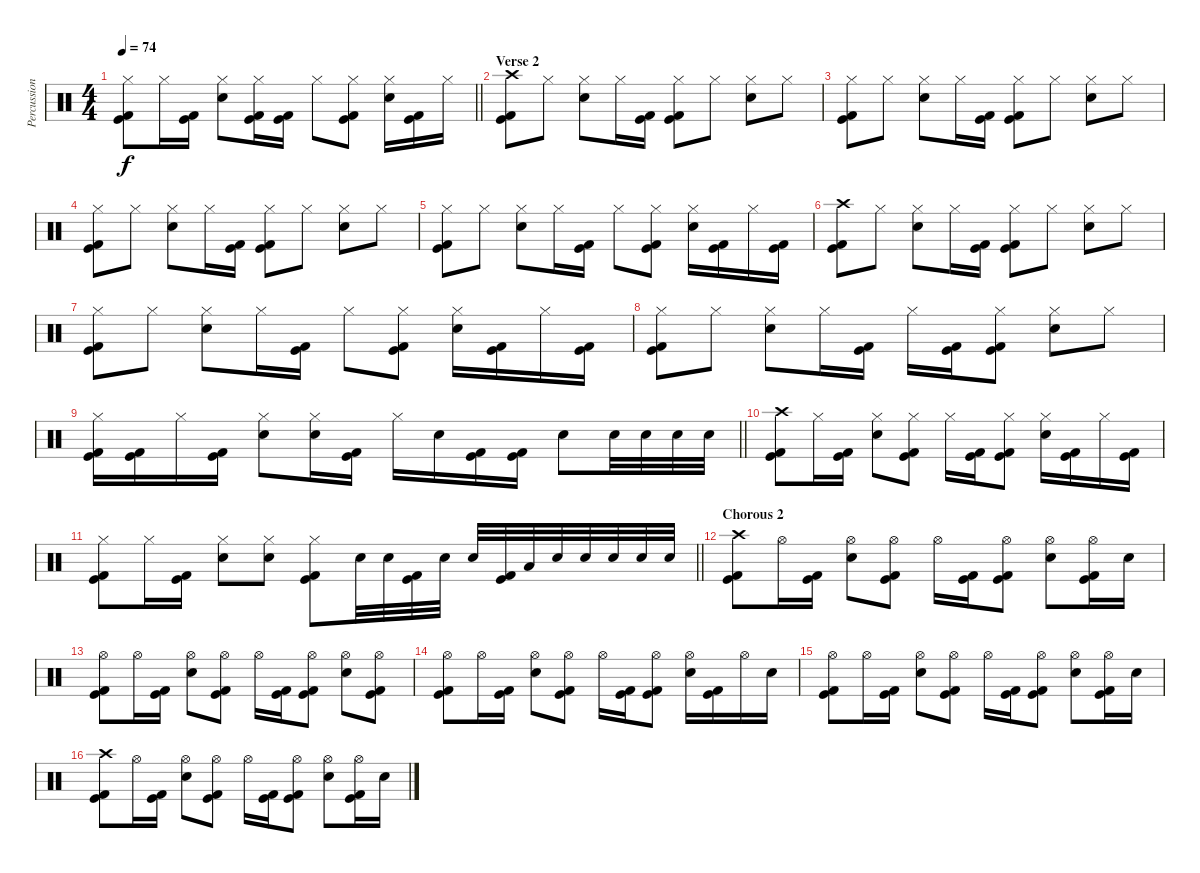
\track ("Percussion" "Percussion") {instrument percussion}
\staff {score}
\articulation defaults
\ts (4 4)
\tempo 74
\clef neutral
\barLineRight lightlight
\ks c
("Hi-Hat (closed)" "Kick (hit)" "Kick (hit) 2").8{dy f} "Hi-Hat (closed)".16 ("Kick (hit)" "Kick (hit) 2").16 ("Hi-Hat (closed)" "Electric Snare (hit)").8 ("Hi-Hat (closed)" "Kick (hit)" "Kick (hit) 2").16 ("Kick (hit)" "Kick (hit) 2").16 "Hi-Hat (closed)".8 ("Hi-Hat (closed)" "Kick (hit)" "Kick (hit) 2").8 ("Hi-Hat (closed)" "Electric Snare (hit)").16 ("Kick (hit)" "Kick (hit) 2").16 "Hi-Hat (closed)".16 |
\section ("" "Verse 2")
("Crash high (hit)" "Kick (hit)" "Kick (hit) 2").8 "Hi-Hat (closed)".8 ("Hi-Hat (closed)" "Electric Snare (hit)").8 "Hi-Hat (closed)".16 ("Kick (hit)" "Kick (hit) 2").16 ("Hi-Hat (closed)" "Kick (hit)" "Kick (hit) 2").8 "Hi-Hat (closed)".8 ("Hi-Hat (closed)" "Electric Snare (hit)").8 "Hi-Hat (closed)".8 |
("Hi-Hat (closed)" "Kick (hit)" "Kick (hit) 2").8 "Hi-Hat (closed)".8 ("Hi-Hat (closed)" "Electric Snare (hit)").8 "Hi-Hat (closed)".16 ("Kick (hit)" "Kick (hit) 2").16 ("Hi-Hat (closed)" "Kick (hit)" "Kick (hit) 2").8 "Hi-Hat (closed)".8 ("Hi-Hat (closed)" "Electric Snare (hit)").8 "Hi-Hat (closed)".8 |
("Hi-Hat (closed)" "Kick (hit)" "Kick (hit) 2").8 "Hi-Hat (closed)".8 ("Hi-Hat (closed)" "Electric Snare (hit)").8 "Hi-Hat (closed)".16 ("Kick (hit)" "Kick (hit) 2").16 ("Hi-Hat (closed)" "Kick (hit)" "Kick (hit) 2").8 "Hi-Hat (closed)".8 ("Hi-Hat (closed)" "Electric Snare (hit)").8 "Hi-Hat (closed)".8 |
("Hi-Hat (closed)" "Kick (hit)" "Kick (hit) 2").8 "Hi-Hat (closed)".8 ("Hi-Hat (closed)" "Electric Snare (hit)").8 "Hi-Hat (closed)".16 ("Kick (hit)" "Kick (hit) 2").16 "Hi-Hat (closed)".8 ("Hi-Hat (closed)" "Kick (hit)" "Kick (hit) 2").8 ("Hi-Hat (closed)" "Electric Snare (hit)").16 ("Kick (hit)" "Kick (hit) 2").16 "Hi-Hat (closed)".16 ("Kick (hit)" "Kick (hit) 2").16 |
("Crash high (hit)" "Kick (hit)" "Kick (hit) 2").8 "Hi-Hat (closed)".8 ("Hi-Hat (closed)" "Electric Snare (hit)").8 "Hi-Hat (closed)".16 ("Kick (hit)" "Kick (hit) 2").16 ("Hi-Hat (closed)" "Kick (hit)" "Kick (hit) 2").8 "Hi-Hat (closed)".8 ("Hi-Hat (closed)" "Electric Snare (hit)").8 "Hi-Hat (closed)".8 |
("Hi-Hat (closed)" "Kick (hit)" "Kick (hit) 2").8 "Hi-Hat (closed)".8 ("Hi-Hat (closed)" "Electric Snare (hit)").8 "Hi-Hat (closed)".16 ("Kick (hit)" "Kick (hit) 2").16 "Hi-Hat (closed)".8 ("Hi-Hat (closed)" "Kick (hit)" "Kick (hit) 2").8 ("Hi-Hat (closed)" "Electric Snare (hit)").16 ("Kick (hit)" "Kick (hit) 2").16 "Hi-Hat (closed)".16 ("Kick (hit)" "Kick (hit) 2").16 |
("Hi-Hat (closed)" "Kick (hit)" "Kick (hit) 2").8 "Hi-Hat (closed)".8 ("Hi-Hat (closed)" "Electric Snare (hit)").8 "Hi-Hat (closed)".16 ("Kick (hit)" "Kick (hit) 2").16 "Hi-Hat (closed)".16 ("Kick (hit)" "Kick (hit) 2").16 ("Hi-Hat (closed)" "Kick (hit)" "Kick (hit) 2").8 ("Hi-Hat (closed)" "Electric Snare (hit)").8 "Hi-Hat (closed)".8 |
\barLineRight lightlight
("Hi-Hat (closed)" "Kick (hit)" "Kick (hit) 2").16 ("Kick (hit)" "Kick (hit) 2").16 "Hi-Hat (closed)".16 ("Kick (hit)" "Kick (hit) 2").16 ("Hi-Hat (closed)" "Electric Snare (hit)").8 ("Hi-Hat (closed)" "Electric Snare (hit)").16 ("Kick (hit)" "Kick (hit) 2").16 "Hi-Hat (closed)".16 "Electric Snare (hit)".16 ("Kick (hit)" "Kick (hit) 2").16 ("Kick (hit)" "Kick (hit) 2").16 "Electric Snare (hit)".8 "Electric Snare (hit)".32 "Electric Snare (hit)".32 "Electric Snare (hit)".32 "Electric Snare (hit)".32 |
\section ("" "")
("Crash high (hit)" "Kick (hit)" "Kick (hit) 2").8 "Hi-Hat (closed)".16 ("Kick (hit)" "Kick (hit) 2").16 ("Hi-Hat (closed)" "Electric Snare (hit)").8 ("Hi-Hat (closed)" "Kick (hit)" "Kick (hit) 2").8 "Hi-Hat (closed)".16 ("Kick (hit)" "Kick (hit) 2").16 ("Hi-Hat (closed)" "Kick (hit)" "Kick (hit) 2").8 ("Hi-Hat (closed)" "Electric Snare (hit)").16 ("Kick (hit)" "Kick (hit) 2").16 "Hi-Hat (closed)".16 ("Kick (hit)" "Kick (hit) 2").16 |
\barLineRight lightlight
("Hi-Hat (closed)" "Kick (hit)" "Kick (hit) 2").8 "Hi-Hat (closed)".16 ("Kick (hit)" "Kick (hit) 2").16 ("Hi-Hat (closed)" "Electric Snare (hit)").8 ("Hi-Hat (closed)" "Electric Snare (hit)").8 ("Hi-Hat (closed)" "Kick (hit)" "Kick (hit) 2").8 "Electric Snare (hit)".32 "Electric Snare (hit)".32 ("Kick (hit)" "Kick (hit) 2").32 "Electric Snare (hit)".32 "Electric Snare (hit)".32 ("Kick (hit)" "Kick (hit) 2").32 "Low Tom (hit)".32 "Electric Snare (hit)".32 "Electric Snare (hit)".32 "Electric Snare (hit)".32 "Electric Snare (hit)".32 "Electric Snare (hit)".32 |
\section ("" "Chorous 2")
("Crash high (hit)" "Kick (hit)" "Kick (hit) 2").8 "Hi-Hat (open)".16 ("Kick (hit)" "Kick (hit) 2").16 ("Hi-Hat (open)" "Electric Snare (hit)").8 ("Hi-Hat (open)" "Kick (hit)" "Kick (hit) 2").8 "Hi-Hat (open)".16 ("Kick (hit)" "Kick (hit) 2").16 ("Hi-Hat (open)" "Kick (hit)" "Kick (hit) 2").8 ("Hi-Hat (open)" "Electric Snare (hit)").8 ("Hi-Hat (open)" "Kick (hit)" "Kick (hit) 2").16 "Electric Snare (hit)".16 |
("Hi-Hat (open)" "Kick (hit)" "Kick (hit) 2").8 "Hi-Hat (open)".16 ("Kick (hit)" "Kick (hit) 2").16 ("Hi-Hat (open)" "Electric Snare (hit)").8 ("Hi-Hat (open)" "Kick (hit)" "Kick (hit) 2").8 "Hi-Hat (open)".16 ("Kick (hit)" "Kick (hit) 2").16 ("Hi-Hat (open)" "Kick (hit)" "Kick (hit) 2").8 ("Hi-Hat (open)" "Electric Snare (hit)").8 ("Hi-Hat (open)" "Kick (hit)" "Kick (hit) 2").8 |
("Hi-Hat (open)" "Kick (hit)" "Kick (hit) 2").8 "Hi-Hat (open)".16 ("Kick (hit)" "Kick (hit) 2").16 ("Hi-Hat (open)" "Electric Snare (hit)").8 ("Hi-Hat (open)" "Kick (hit)" "Kick (hit) 2").8 "Hi-Hat (open)".16 ("Kick (hit)" "Kick (hit) 2").16 ("Hi-Hat (open)" "Kick (hit)" "Kick (hit) 2").8 ("Hi-Hat (open)" "Electric Snare (hit)").16 ("Kick (hit)" "Kick (hit) 2").16 "Hi-Hat (open)".16 "Electric Snare (hit)".16 |
("Hi-Hat (open)" "Kick (hit)" "Kick (hit) 2").8 "Hi-Hat (open)".16 ("Kick (hit)" "Kick (hit) 2").16 ("Hi-Hat (open)" "Electric Snare (hit)").8 ("Hi-Hat (open)" "Kick (hit)" "Kick (hit) 2").8 "Hi-Hat (open)".16 ("Kick (hit)" "Kick (hit) 2").16 ("Hi-Hat (open)" "Kick (hit)" "Kick (hit) 2").8 ("Hi-Hat (open)" "Electric Snare (hit)").8 ("Hi-Hat (open)" "Kick (hit)" "Kick (hit) 2").16 "Electric Snare (hit)".16 |
("Crash high (hit)" "Kick (hit)" "Kick (hit) 2").8 "Hi-Hat (open)".16 ("Kick (hit)" "Kick (hit) 2").16 ("Hi-Hat (open)" "Electric Snare (hit)").8 ("Hi-Hat (open)" "Kick (hit)" "Kick (hit) 2").8 "Hi-Hat (open)".16 ("Kick (hit)" "Kick (hit) 2").16 ("Hi-Hat (open)" "Kick (hit)" "Kick (hit) 2").8 ("Hi-Hat (open)" "Electric Snare (hit)").8 ("Hi-Hat (open)" "Kick (hit)" "Kick (hit) 2").16 "Electric Snare (hit)".16
